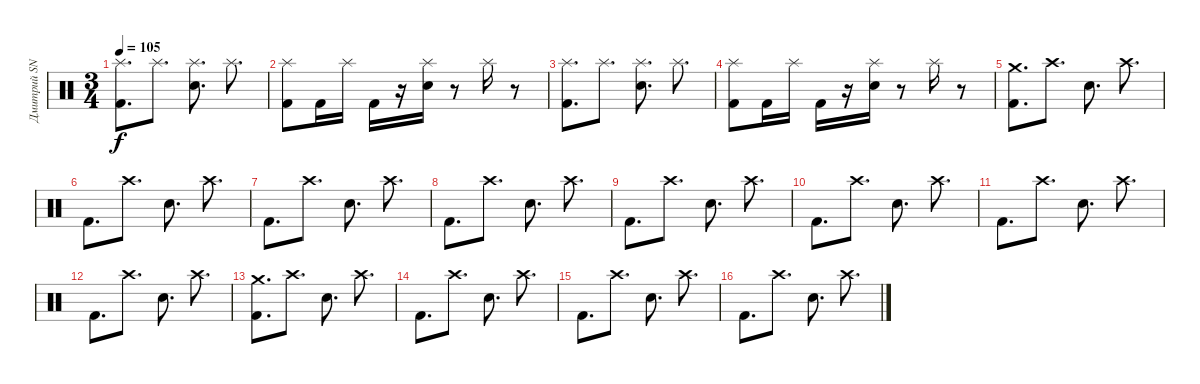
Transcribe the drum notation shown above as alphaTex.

\track ("Дмитрий SNAKE Хакимов" "Дмитрий SN") {instrument percussion}
\staff {score}
\articulation defaults
\ts (3 4)
\tempo 105
\clef neutral
\ks c
("Splash (hit)" "Kick (hit) 2").8{d dy f} "Splash (hit)".8{d} ("Splash (hit)" "Snare (hit) 2").8{d} "Splash (hit)".8{d} |
("Splash (hit)" "Kick (hit) 2").8 "Kick (hit) 2".16 "Splash (hit)".16 "Kick (hit) 2".16 r.16 ("Splash (hit)" "Snare (hit) 2").16 r.8 "Splash (hit)".16 r.8 |
("Splash (hit)" "Kick (hit) 2").8{d} "Splash (hit)".8{d} ("Splash (hit)" "Snare (hit) 2").8{d} "Splash (hit)".8{d} |
("Splash (hit)" "Kick (hit) 2").8 "Kick (hit) 2".16 "Splash (hit)".16 "Kick (hit) 2".16 r.16 ("Splash (hit)" "Snare (hit) 2").16 r.8 "Splash (hit)".16 r.8 |
("Crash medium (hit)" "Kick (hit) 2").8{d} "Crash high (hit)".8{d} "Snare (hit) 2".8{d} "Crash high (hit)".8{d} |
"Kick (hit) 2".8{d} "Crash high (hit)".8{d} "Snare (hit) 2".8{d} "Crash high (hit)".8{d} |
"Kick (hit) 2".8{d} "Crash high (hit)".8{d} "Snare (hit) 2".8{d} "Crash high (hit)".8{d} |
"Kick (hit) 2".8{d} "Crash high (hit)".8{d} "Snare (hit) 2".8{d} "Crash high (hit)".8{d} |
"Kick (hit) 2".8{d} "Crash high (hit)".8{d} "Snare (hit) 2".8{d} "Crash high (hit)".8{d} |
"Kick (hit) 2".8{d} "Crash high (hit)".8{d} "Snare (hit) 2".8{d} "Crash high (hit)".8{d} |
"Kick (hit) 2".8{d} "Crash high (hit)".8{d} "Snare (hit) 2".8{d} "Crash high (hit)".8{d} |
"Kick (hit) 2".8{d} "Crash high (hit)".8{d} "Snare (hit) 2".8{d} "Crash high (hit)".8{d} |
("Crash medium (hit)" "Kick (hit) 2").8{d} "Crash high (hit)".8{d} "Snare (hit) 2".8{d} "Crash high (hit)".8{d} |
"Kick (hit) 2".8{d} "Crash high (hit)".8{d} "Snare (hit) 2".8{d} "Crash high (hit)".8{d} |
"Kick (hit) 2".8{d} "Crash high (hit)".8{d} "Snare (hit) 2".8{d} "Crash high (hit)".8{d} |
"Kick (hit) 2".8{d} "Crash high (hit)".8{d} "Snare (hit) 2".8{d} "Crash high (hit)".8{d}
